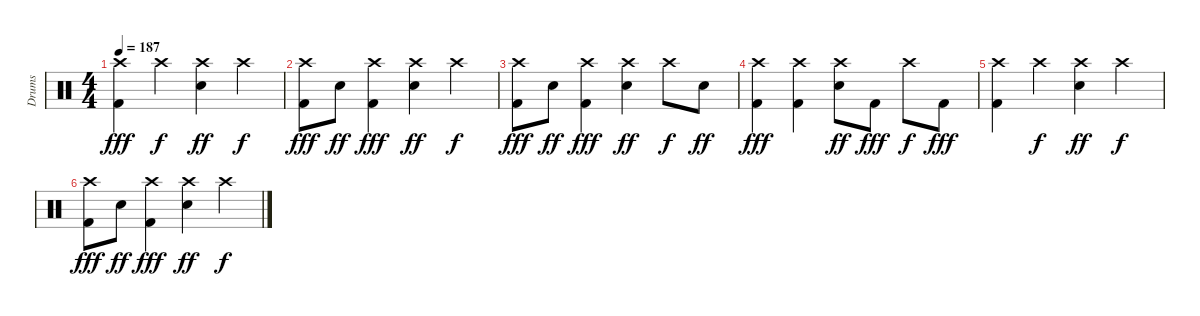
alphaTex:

\track ("Drums" "Drums") {instrument percussion}
\staff {score}
\articulation defaults
\ts (4 4)
\tempo 187
\clef neutral
\ks c
("Crash high (hit)" "Kick (hit) 2").4{dy fff} "Crash high (hit)".4{dy f} ("Crash high (hit)" "Snare (hit) 2").4{dy ff} "Crash high (hit)".4{dy f} |
("Crash high (hit)" "Kick (hit) 2").8{dy fff} "Snare (hit) 2".8{dy ff} ("Crash high (hit)" "Kick (hit) 2").4{dy fff} ("Crash high (hit)" "Snare (hit) 2").4{dy ff} "Crash high (hit)".4{dy f} |
("Crash high (hit)" "Kick (hit) 2").8{dy fff} "Snare (hit) 2".8{dy ff} ("Crash high (hit)" "Kick (hit) 2").4{dy fff} ("Crash high (hit)" "Snare (hit) 2").4{dy ff} "Crash high (hit)".8{dy f} "Snare (hit) 2".8{dy ff} |
("Crash high (hit)" "Kick (hit) 2").4{dy fff} ("Crash high (hit)" "Kick (hit) 2").4 ("Crash high (hit)" "Snare (hit) 2").8{dy ff} "Kick (hit) 2".8{dy fff} "Crash high (hit)".8{dy f} "Kick (hit) 2".8{dy fff} |
("Crash high (hit)" "Kick (hit) 2").4 "Crash high (hit)".4{dy f} ("Crash high (hit)" "Snare (hit) 2").4{dy ff} "Crash high (hit)".4{dy f} |
("Crash high (hit)" "Kick (hit) 2").8{dy fff} "Snare (hit) 2".8{dy ff} ("Crash high (hit)" "Kick (hit) 2").4{dy fff} ("Crash high (hit)" "Snare (hit) 2").4{dy ff} "Crash high (hit)".4{dy f}
